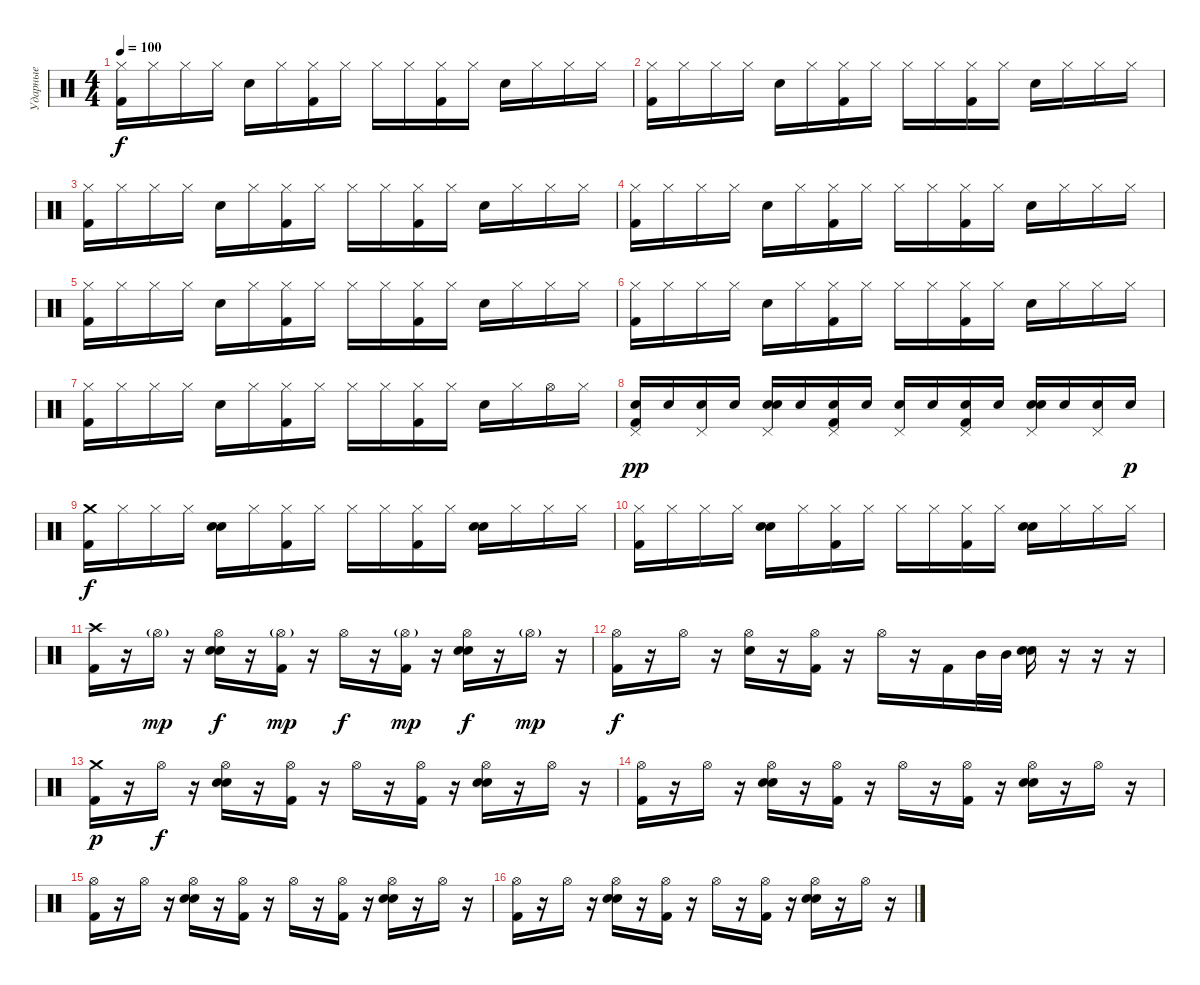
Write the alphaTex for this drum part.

\track ("Ударные" "Ударные") {instrument percussion}
\staff {score}
\articulation defaults
\ts (4 4)
\tempo 100
\clef neutral
\ks c
("Hi-Hat (closed)" "Kick (hit) 2").16{dy f} "Hi-Hat (closed)".16 "Hi-Hat (closed)".16 "Hi-Hat (closed)".16 "Electric Snare (hit)".16 "Hi-Hat (closed)".16 ("Hi-Hat (closed)" "Kick (hit) 2").16 "Hi-Hat (closed)".16 "Hi-Hat (closed)".16 "Hi-Hat (closed)".16 ("Hi-Hat (closed)" "Kick (hit) 2").16 "Hi-Hat (closed)".16 "Electric Snare (hit)".16 "Hi-Hat (closed)".16 "Hi-Hat (closed)".16 "Hi-Hat (closed)".16 |
("Hi-Hat (closed)" "Kick (hit) 2").16 "Hi-Hat (closed)".16 "Hi-Hat (closed)".16 "Hi-Hat (closed)".16 "Electric Snare (hit)".16 "Hi-Hat (closed)".16 ("Hi-Hat (closed)" "Kick (hit) 2").16 "Hi-Hat (closed)".16 "Hi-Hat (closed)".16 "Hi-Hat (closed)".16 ("Hi-Hat (closed)" "Kick (hit) 2").16 "Hi-Hat (closed)".16 "Electric Snare (hit)".16 "Hi-Hat (closed)".16 "Hi-Hat (closed)".16 "Hi-Hat (closed)".16 |
("Hi-Hat (closed)" "Kick (hit) 2").16 "Hi-Hat (closed)".16 "Hi-Hat (closed)".16 "Hi-Hat (closed)".16 "Electric Snare (hit)".16 "Hi-Hat (closed)".16 ("Hi-Hat (closed)" "Kick (hit) 2").16 "Hi-Hat (closed)".16 "Hi-Hat (closed)".16 "Hi-Hat (closed)".16 ("Hi-Hat (closed)" "Kick (hit) 2").16 "Hi-Hat (closed)".16 "Electric Snare (hit)".16 "Hi-Hat (closed)".16 "Hi-Hat (closed)".16 "Hi-Hat (closed)".16 |
("Hi-Hat (closed)" "Kick (hit) 2").16 "Hi-Hat (closed)".16 "Hi-Hat (closed)".16 "Hi-Hat (closed)".16 "Electric Snare (hit)".16 "Hi-Hat (closed)".16 ("Hi-Hat (closed)" "Kick (hit) 2").16 "Hi-Hat (closed)".16 "Hi-Hat (closed)".16 "Hi-Hat (closed)".16 ("Hi-Hat (closed)" "Kick (hit) 2").16 "Hi-Hat (closed)".16 "Electric Snare (hit)".16 "Hi-Hat (closed)".16 "Hi-Hat (closed)".16 "Hi-Hat (closed)".16 |
("Hi-Hat (closed)" "Kick (hit) 2").16 "Hi-Hat (closed)".16 "Hi-Hat (closed)".16 "Hi-Hat (closed)".16 "Electric Snare (hit)".16 "Hi-Hat (closed)".16 ("Hi-Hat (closed)" "Kick (hit) 2").16 "Hi-Hat (closed)".16 "Hi-Hat (closed)".16 "Hi-Hat (closed)".16 ("Hi-Hat (closed)" "Kick (hit) 2").16 "Hi-Hat (closed)".16 "Electric Snare (hit)".16 "Hi-Hat (closed)".16 "Hi-Hat (closed)".16 "Hi-Hat (closed)".16 |
("Hi-Hat (closed)" "Kick (hit) 2").16 "Hi-Hat (closed)".16 "Hi-Hat (closed)".16 "Hi-Hat (closed)".16 "Electric Snare (hit)".16 "Hi-Hat (closed)".16 ("Hi-Hat (closed)" "Kick (hit) 2").16 "Hi-Hat (closed)".16 "Hi-Hat (closed)".16 "Hi-Hat (closed)".16 ("Hi-Hat (closed)" "Kick (hit) 2").16 "Hi-Hat (closed)".16 "Electric Snare (hit)".16 "Hi-Hat (closed)".16 "Hi-Hat (closed)".16 "Hi-Hat (closed)".16 |
("Hi-Hat (closed)" "Kick (hit) 2").16 "Hi-Hat (closed)".16 "Hi-Hat (closed)".16 "Hi-Hat (closed)".16 "Electric Snare (hit)".16 "Hi-Hat (closed)".16 ("Hi-Hat (closed)" "Kick (hit) 2").16 "Hi-Hat (closed)".16 "Hi-Hat (closed)".16 "Hi-Hat (closed)".16 ("Hi-Hat (closed)" "Kick (hit) 2").16 "Hi-Hat (closed)".16 "Electric Snare (hit)".16 "Hi-Hat (closed)".16 "Hi-Hat (open)".16 "Hi-Hat (closed)".16 |
("Pedal Hi-Hat (hit)" "Electric Snare (hit)" "Kick (hit) 2").16{dy pp} "Electric Snare (hit)".16 ("Pedal Hi-Hat (hit)" "Electric Snare (hit)").16 "Electric Snare (hit)".16 ("Pedal Hi-Hat (hit)" "Electric Snare (hit)" "Electric Snare (hit)").16 "Electric Snare (hit)".16 ("Pedal Hi-Hat (hit)" "Electric Snare (hit)" "Kick (hit) 2").16 "Electric Snare (hit)".16 ("Pedal Hi-Hat (hit)" "Electric Snare (hit)").16 "Electric Snare (hit)".16 ("Pedal Hi-Hat (hit)" "Electric Snare (hit)" "Kick (hit) 2").16 "Electric Snare (hit)".16 ("Pedal Hi-Hat (hit)" "Electric Snare (hit)" "Electric Snare (hit)").16 "Electric Snare (hit)".16 ("Pedal Hi-Hat (hit)" "Electric Snare (hit)").16 "Electric Snare (hit)".16{dy p} |
("Crash medium (hit)" "Kick (hit) 2").16{dy f} "Hi-Hat (closed)".16 "Hi-Hat (closed)".16 "Hi-Hat (closed)".16 ("Electric Snare (hit)" "Electric Snare (hit)").16 "Hi-Hat (closed)".16 ("Hi-Hat (closed)" "Kick (hit) 2").16 "Hi-Hat (closed)".16 "Hi-Hat (closed)".16 "Hi-Hat (closed)".16 ("Hi-Hat (closed)" "Kick (hit) 2").16 "Hi-Hat (closed)".16 ("Electric Snare (hit)" "Electric Snare (hit)").16 "Hi-Hat (closed)".16 "Hi-Hat (closed)".16 "Hi-Hat (closed)".16 |
("Hi-Hat (closed)" "Kick (hit) 2").16 "Hi-Hat (closed)".16 "Hi-Hat (closed)".16 "Hi-Hat (closed)".16 ("Electric Snare (hit)" "Electric Snare (hit)").16 "Hi-Hat (closed)".16 ("Hi-Hat (closed)" "Kick (hit) 2").16 "Hi-Hat (closed)".16 "Hi-Hat (closed)".16 "Hi-Hat (closed)".16 ("Hi-Hat (closed)" "Kick (hit) 2").16 "Hi-Hat (closed)".16 ("Electric Snare (hit)" "Electric Snare (hit)").16 "Hi-Hat (closed)".16 "Hi-Hat (closed)".16 "Hi-Hat (closed)".16 |
("Crash high (hit)" "Kick (hit) 2").16 r.16 "Hi-Hat (open)"{g}.16{dy mp} r.16 ("Hi-Hat (open)" "Electric Snare (hit)" "Electric Snare (hit)").16{dy f} r.16 ("Hi-Hat (open)"{g} "Kick (hit) 2").16{dy mp} r.16 "Hi-Hat (open)".16{dy f} r.16 ("Hi-Hat (open)"{g} "Kick (hit) 2").16{dy mp} r.16 ("Hi-Hat (open)" "Electric Snare (hit)" "Electric Snare (hit)").16{dy f} r.16 "Hi-Hat (open)"{g}.16{dy mp} r.16 |
("Hi-Hat (open)" "Kick (hit) 2").16{dy f} r.16 "Hi-Hat (open)".16 r.16 ("Hi-Hat (open)" "Electric Snare (hit)").16 r.16 ("Hi-Hat (open)" "Kick (hit) 2").16 r.16 "Hi-Hat (open)".16 r.16 "Kick (hit) 2".16 "Mid Tom (hit)".32 "Mid Tom (hit)".32 ("Electric Snare (hit)" "Electric Snare (hit)").16 r.16 r.16 r.16 |
("Crash medium (hit)" "Kick (hit) 2").16{dy p} r.16 "Hi-Hat (open)".16{dy f} r.16 ("Hi-Hat (open)" "Electric Snare (hit)" "Electric Snare (hit)").16 r.16 ("Hi-Hat (open)" "Kick (hit) 2").16 r.16 "Hi-Hat (open)".16 r.16 ("Hi-Hat (open)" "Kick (hit) 2").16 r.16 ("Hi-Hat (open)" "Electric Snare (hit)" "Electric Snare (hit)").16 r.16 "Hi-Hat (open)".16 r.16 |
("Hi-Hat (open)" "Kick (hit) 2").16 r.16 "Hi-Hat (open)".16 r.16 ("Hi-Hat (open)" "Electric Snare (hit)" "Electric Snare (hit)").16 r.16 ("Hi-Hat (open)" "Kick (hit) 2").16 r.16 "Hi-Hat (open)".16 r.16 ("Hi-Hat (open)" "Kick (hit) 2").16 r.16 ("Hi-Hat (open)" "Electric Snare (hit)" "Electric Snare (hit)").16 r.16 "Hi-Hat (open)".16 r.16 |
("Hi-Hat (open)" "Kick (hit) 2").16 r.16 "Hi-Hat (open)".16 r.16 ("Hi-Hat (open)" "Electric Snare (hit)" "Electric Snare (hit)").16 r.16 ("Hi-Hat (open)" "Kick (hit) 2").16 r.16 "Hi-Hat (open)".16 r.16 ("Hi-Hat (open)" "Kick (hit) 2").16 r.16 ("Hi-Hat (open)" "Electric Snare (hit)" "Electric Snare (hit)").16 r.16 "Hi-Hat (open)".16 r.16 |
("Hi-Hat (open)" "Kick (hit) 2").16 r.16 "Hi-Hat (open)".16 r.16 ("Hi-Hat (open)" "Electric Snare (hit)" "Electric Snare (hit)").16 r.16 ("Hi-Hat (open)" "Kick (hit) 2").16 r.16 "Hi-Hat (open)".16 r.16 ("Hi-Hat (open)" "Kick (hit) 2").16 r.16 ("Hi-Hat (open)" "Electric Snare (hit)" "Electric Snare (hit)").16 r.16 "Hi-Hat (open)".16 r.16
